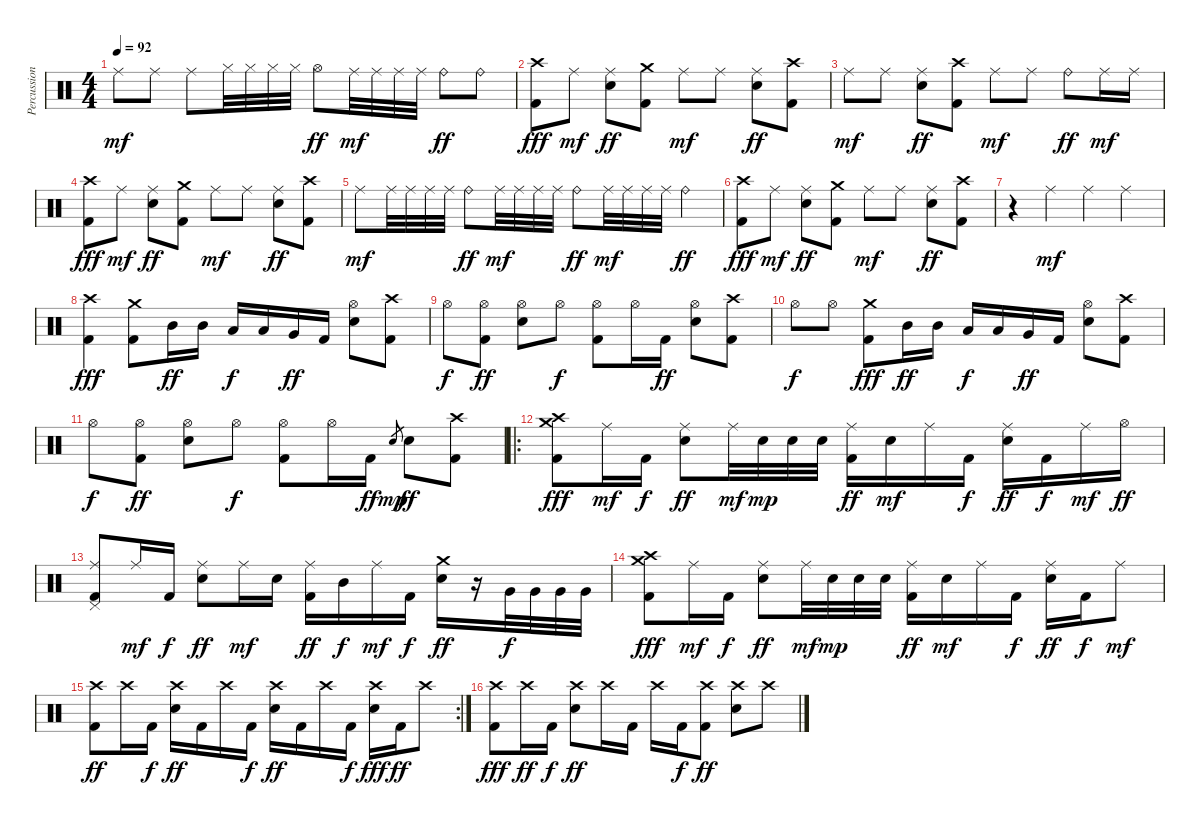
\track ("Percussions" "Percussion") {instrument percussion}
\staff {score}
\articulation defaults
\ts (4 4)
\tempo 92
\clef neutral
\ks c "Ride (middle)".8{dy mf} "Ride (middle)".8 "Ride (middle)".8 "Hi-Hat (closed)".32 "Hi-Hat (closed)".32 "Hi-Hat (closed)".32 "Hi-Hat (closed)".32 "Hi-Hat (open)".8{dy ff} "Ride (middle)".32{dy mf} "Ride (middle)".32 "Ride (middle)".32 "Ride (middle)".32 "Ride (bell)".8{dy ff} "Ride (bell)".8
|
("Crash high (hit)" "Kick (hit) 2").8{dy fff} "Ride (middle)".8{dy mf} ("Ride (middle)" "Electric Snare (hit)").8{dy ff} ("Crash medium (hit)" "Kick (hit) 2").8 "Ride (middle)".8{dy mf} "Ride (middle)".8 ("Ride (middle)" "Electric Snare (hit)").8{dy ff} ("Crash high (hit)" "Kick (hit) 2").8 |
"Ride (middle)".8{dy mf} "Ride (middle)".8 ("Ride (middle)" "Electric Snare (hit)").8{dy ff} ("Crash high (hit)" "Kick (hit) 2").8 "Ride (middle)".8{dy mf} "Ride (middle)".8 "Ride (bell)".8{dy ff} "Ride (middle)".16{dy mf} "Ride (middle)".16 |
("Crash high (hit)" "Kick (hit) 2").8{dy fff} "Ride (middle)".8{dy mf} ("Ride (middle)" "Electric Snare (hit)").8{dy ff} ("Crash medium (hit)" "Kick (hit) 2").8 "Ride (middle)".8{dy mf} "Ride (middle)".8 ("Ride (middle)" "Electric Snare (hit)").8{dy ff} ("Crash high (hit)" "Kick (hit) 2").8 |
"Ride (middle)".8{dy mf} "Ride (middle)".32 "Ride (middle)".32 "Ride (middle)".32 "Ride (middle)".32 "Ride (bell)".8{dy ff} "Ride (middle)".32{dy mf} "Ride (middle)".32 "Ride (middle)".32 "Ride (middle)".32 "Ride (bell)".8{dy ff} "Ride (middle)".32{dy mf} "Ride (middle)".32 "Ride (middle)".32 "Ride (middle)".32 "Ride (bell)".4{dy ff} |
("Crash high (hit)" "Kick (hit) 2").8{dy fff} "Ride (middle)".8{dy mf} ("Ride (middle)" "Electric Snare (hit)").8{dy ff} ("Crash medium (hit)" "Kick (hit) 2").8 "Ride (middle)".8{dy mf} "Ride (middle)".8 ("Ride (middle)" "Electric Snare (hit)").8{dy ff} ("Crash high (hit)" "Kick (hit) 2").8 |
r.4 "Ride (middle)".4{dy mf} "Ride (middle)".4 "Ride (middle)".4 |
("Crash high (hit)" "Kick (hit) 2").4{dy fff} ("Crash medium (hit)" "Kick (hit) 2").8 "Mid Tom (hit)".16{dy ff} "Mid Tom (hit)".16 "Low Tom (hit)".16{dy f} "Low Tom (hit)".16 "Very Low Tom (hit)".16{dy ff} "Kick (hit) 2".16 ("Hi-Hat (open)" "Electric Snare (hit)").8 ("Crash high (hit)" "Kick (hit) 2").8 |
"Hi-Hat (open)".8{dy f} ("Hi-Hat (open)" "Kick (hit) 2").8{dy ff} ("Hi-Hat (open)" "Electric Snare (hit)").8 "Hi-Hat (open)".8{dy f} ("Hi-Hat (open)" "Kick (hit) 2").8 "Hi-Hat (open)".16 "Kick (hit) 2".16{dy ff} ("Hi-Hat (open)" "Electric Snare (hit)").8 ("Crash high (hit)" "Kick (hit) 2").8 |
"Hi-Hat (open)".8{dy f} "Hi-Hat (open)".8 ("Crash medium (hit)" "Kick (hit) 2").8{dy fff} "Mid Tom (hit)".16{dy ff} "Mid Tom (hit)".16 "Low Tom (hit)".16{dy f} "Low Tom (hit)".16 "Very Low Tom (hit)".16{dy ff} "Kick (hit) 2".16 ("Hi-Hat (open)" "Electric Snare (hit)").8 ("Crash high (hit)" "Kick (hit) 2").8 |
"Hi-Hat (open)".8{dy f} ("Hi-Hat (open)" "Kick (hit) 2").8{dy ff} ("Hi-Hat (open)" "Electric Snare (hit)").8 "Hi-Hat (open)".8{dy f} ("Hi-Hat (open)" "Kick (hit) 2").8 "Hi-Hat (open)".16 "Kick (hit) 2".16{dy ff} "Electric Snare (hit)".8{gr dy mp} "Electric Snare (hit)".8{dy ff} ("Crash high (hit)" "Kick (hit) 2").8 |
\ro
("Crash medium (hit)" "Crash high (hit)" "Kick (hit) 2").8{dy fff} "Ride (middle)".16{dy mf} "Kick (hit) 2".16{dy f} ("Ride (middle)" "Electric Snare (hit)").8{dy ff} "Ride (middle)".32{dy mf} "Electric Snare (hit)".32{dy mp} "Electric Snare (hit)".32 "Electric Snare (hit)".32 ("Ride (middle)" "Kick (hit) 2").16{dy ff} "Electric Snare (hit)".16{dy mf} "Ride (middle)".16 "Kick (hit) 2".16{dy f} ("Ride (middle)" "Electric Snare (hit)").16{dy ff} "Kick (hit) 2".16{dy f} "Ride (middle)".16{dy mf} "Hi-Hat (open)".16{dy ff} |
("Pedal Hi-Hat (hit)" "Ride (middle)" "Kick (hit) 2").8 "Ride (middle)".16{dy mf} "Kick (hit) 2".16{dy f} ("Ride (middle)" "Electric Snare (hit)").8{dy ff} "Ride (middle)".16{dy mf} "Electric Snare (hit)".16 ("Ride (middle)" "Kick (hit) 2").16{dy ff} "Mid Tom (hit)".16{dy f} "Ride (middle)".16{dy mf} "Kick (hit) 2".16{dy f} ("Crash medium (hit)" "Electric Snare (hit)").16{dy ff} r.16 "Very Low Tom (hit)".32{dy f} "Very Low Tom (hit)".32 "Very Low Tom (hit)".32 "Very Low Tom (hit)".32 |
("Crash medium (hit)" "Crash high (hit)" "Kick (hit) 2").8{dy fff} "Ride (middle)".16{dy mf} "Kick (hit) 2".16{dy f} ("Ride (middle)" "Electric Snare (hit)").8{dy ff} "Ride (middle)".32{dy mf} "Electric Snare (hit)".32{dy mp} "Electric Snare (hit)".32 "Electric Snare (hit)".32 ("Ride (middle)" "Kick (hit) 2").16{dy ff} "Electric Snare (hit)".16{dy mf} "Ride (middle)".16 "Kick (hit) 2".16{dy f} ("Ride (middle)" "Electric Snare (hit)").16{dy ff} "Kick (hit) 2".16{dy f} "Ride (middle)".8{dy mf} |
\rc 2
("Crash high (hit)" "Kick (hit) 2").8{dy ff} "Crash high (hit)".16 "Kick (hit) 2".16{dy f} ("Crash high (hit)" "Electric Snare (hit)").16{dy ff} "Kick (hit) 2".16 "Crash high (hit)".16 "Kick (hit) 2".16{dy f} ("Crash high (hit)" "Electric Snare (hit)").16{dy ff} "Kick (hit) 2".16 "Crash high (hit)".16 "Kick (hit) 2".16{dy f} ("Crash high (hit)" "Electric Snare (hit)").16{dy fff} "Kick (hit) 2".16{dy ff} "Crash high (hit)".8 |
("Crash high (hit)" "Kick (hit) 2").8{dy fff} "Crash high (hit)".16{dy ff} "Kick (hit) 2".16{dy f} ("Crash high (hit)" "Electric Snare (hit)").8{dy ff} "Crash high (hit)".16 "Kick (hit) 2".16 "Crash high (hit)".16 "Kick (hit) 2".16{dy f} ("Crash high (hit)" "Kick (hit) 2").8{dy ff} ("Crash high (hit)" "Electric Snare (hit)").8 "Crash high (hit)".8
